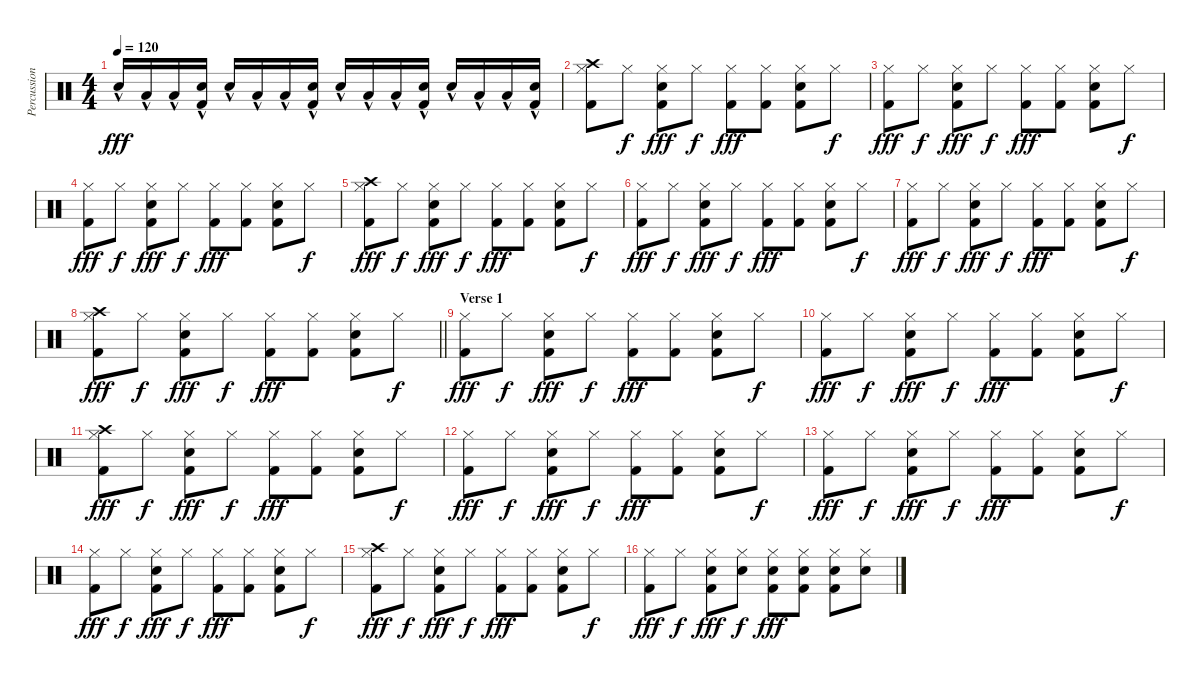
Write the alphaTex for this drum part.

\track ("Percussion: Steve Walchoz" "Percussion") {instrument percussion}
\staff {score}
\articulation defaults
\ts (4 4)
\tempo 120
\clef neutral
\ks c "Snare (hit) 2"{hac}.16{dy fff} "Low Tom (hit)"{hac}.16 "Low Tom (hit)"{hac}.16
("Snare (hit) 2" "Kick (hit) 2"{hac}).16 "Snare (hit) 2"{hac}.16 "Low Tom (hit)"{hac}.16 "Low Tom (hit)"{hac}.16 ("Snare (hit) 2" "Kick (hit) 2"{hac}).16 "Snare (hit) 2"{hac}.16 "Low Tom (hit)"{hac}.16 "Low Tom (hit)"{hac}.16 ("Snare (hit) 2" "Kick (hit) 2"{hac}).16 "Snare (hit) 2"{hac}.16 "Low Tom (hit)"{hac}.16 "Low Tom (hit)"{hac}.16 ("Snare (hit) 2" "Kick (hit) 2"{hac}).16 |
("Crash high (hit)" "Hi-Hat (closed)" "Kick (hit) 2").8 "Hi-Hat (closed)".8{dy f} ("Hi-Hat (closed)" "Snare (hit) 2" "Kick (hit) 2").8{dy fff} "Hi-Hat (closed)".8{dy f} ("Hi-Hat (closed)" "Kick (hit) 2").8{dy fff} ("Hi-Hat (closed)" "Kick (hit) 2").8 ("Hi-Hat (closed)" "Snare (hit) 2" "Kick (hit) 2").8 "Hi-Hat (closed)".8{dy f} |
("Hi-Hat (closed)" "Kick (hit) 2").8{dy fff} "Hi-Hat (closed)".8{dy f} ("Hi-Hat (closed)" "Snare (hit) 2" "Kick (hit) 2").8{dy fff} "Hi-Hat (closed)".8{dy f} ("Hi-Hat (closed)" "Kick (hit) 2").8{dy fff} ("Hi-Hat (closed)" "Kick (hit) 2").8 ("Hi-Hat (closed)" "Snare (hit) 2" "Kick (hit) 2").8 "Hi-Hat (closed)".8{dy f} |
("Hi-Hat (closed)" "Kick (hit) 2").8{dy fff} "Hi-Hat (closed)".8{dy f} ("Hi-Hat (closed)" "Snare (hit) 2" "Kick (hit) 2").8{dy fff} "Hi-Hat (closed)".8{dy f} ("Hi-Hat (closed)" "Kick (hit) 2").8{dy fff} ("Hi-Hat (closed)" "Kick (hit) 2").8 ("Hi-Hat (closed)" "Snare (hit) 2" "Kick (hit) 2").8 "Hi-Hat (closed)".8{dy f} |
("Crash high (hit)" "Hi-Hat (closed)" "Kick (hit) 2").8{dy fff} "Hi-Hat (closed)".8{dy f} ("Hi-Hat (closed)" "Snare (hit) 2" "Kick (hit) 2").8{dy fff} "Hi-Hat (closed)".8{dy f} ("Hi-Hat (closed)" "Kick (hit) 2").8{dy fff} ("Hi-Hat (closed)" "Kick (hit) 2").8 ("Hi-Hat (closed)" "Snare (hit) 2" "Kick (hit) 2").8 "Hi-Hat (closed)".8{dy f} |
("Hi-Hat (closed)" "Kick (hit) 2").8{dy fff} "Hi-Hat (closed)".8{dy f} ("Hi-Hat (closed)" "Snare (hit) 2" "Kick (hit) 2").8{dy fff} "Hi-Hat (closed)".8{dy f} ("Hi-Hat (closed)" "Kick (hit) 2").8{dy fff} ("Hi-Hat (closed)" "Kick (hit) 2").8 ("Hi-Hat (closed)" "Snare (hit) 2" "Kick (hit) 2").8 "Hi-Hat (closed)".8{dy f} |
("Hi-Hat (closed)" "Kick (hit) 2").8{dy fff} "Hi-Hat (closed)".8{dy f} ("Hi-Hat (closed)" "Snare (hit) 2" "Kick (hit) 2").8{dy fff} "Hi-Hat (closed)".8{dy f} ("Hi-Hat (closed)" "Kick (hit) 2").8{dy fff} ("Hi-Hat (closed)" "Kick (hit) 2").8 ("Hi-Hat (closed)" "Snare (hit) 2" "Kick (hit) 2").8 "Hi-Hat (closed)".8{dy f} |
\barLineRight lightlight
("Crash high (hit)" "Hi-Hat (closed)" "Kick (hit) 2").8{dy fff} "Hi-Hat (closed)".8{dy f} ("Hi-Hat (closed)" "Snare (hit) 2" "Kick (hit) 2").8{dy fff} "Hi-Hat (closed)".8{dy f} ("Hi-Hat (closed)" "Kick (hit) 2").8{dy fff} ("Hi-Hat (closed)" "Kick (hit) 2").8 ("Hi-Hat (closed)" "Snare (hit) 2" "Kick (hit) 2").8 "Hi-Hat (closed)".8{dy f} |
\section ("" "Verse 1")
("Hi-Hat (closed)" "Kick (hit) 2").8{dy fff} "Hi-Hat (closed)".8{dy f} ("Hi-Hat (closed)" "Snare (hit) 2" "Kick (hit) 2").8{dy fff} "Hi-Hat (closed)".8{dy f} ("Hi-Hat (closed)" "Kick (hit) 2").8{dy fff} ("Hi-Hat (closed)" "Kick (hit) 2").8 ("Hi-Hat (closed)" "Snare (hit) 2" "Kick (hit) 2").8 "Hi-Hat (closed)".8{dy f} |
("Hi-Hat (closed)" "Kick (hit) 2").8{dy fff} "Hi-Hat (closed)".8{dy f} ("Hi-Hat (closed)" "Snare (hit) 2" "Kick (hit) 2").8{dy fff} "Hi-Hat (closed)".8{dy f} ("Hi-Hat (closed)" "Kick (hit) 2").8{dy fff} ("Hi-Hat (closed)" "Kick (hit) 2").8 ("Hi-Hat (closed)" "Snare (hit) 2" "Kick (hit) 2").8 "Hi-Hat (closed)".8{dy f} |
("Crash high (hit)" "Hi-Hat (closed)" "Kick (hit) 2").8{dy fff} "Hi-Hat (closed)".8{dy f} ("Hi-Hat (closed)" "Snare (hit) 2" "Kick (hit) 2").8{dy fff} "Hi-Hat (closed)".8{dy f} ("Hi-Hat (closed)" "Kick (hit) 2").8{dy fff} ("Hi-Hat (closed)" "Kick (hit) 2").8 ("Hi-Hat (closed)" "Snare (hit) 2" "Kick (hit) 2").8 "Hi-Hat (closed)".8{dy f} |
("Hi-Hat (closed)" "Kick (hit) 2").8{dy fff} "Hi-Hat (closed)".8{dy f} ("Hi-Hat (closed)" "Snare (hit) 2" "Kick (hit) 2").8{dy fff} "Hi-Hat (closed)".8{dy f} ("Hi-Hat (closed)" "Kick (hit) 2").8{dy fff} ("Hi-Hat (closed)" "Kick (hit) 2").8 ("Hi-Hat (closed)" "Snare (hit) 2" "Kick (hit) 2").8 "Hi-Hat (closed)".8{dy f} |
("Hi-Hat (closed)" "Kick (hit) 2").8{dy fff} "Hi-Hat (closed)".8{dy f} ("Hi-Hat (closed)" "Snare (hit) 2" "Kick (hit) 2").8{dy fff} "Hi-Hat (closed)".8{dy f} ("Hi-Hat (closed)" "Kick (hit) 2").8{dy fff} ("Hi-Hat (closed)" "Kick (hit) 2").8 ("Hi-Hat (closed)" "Snare (hit) 2" "Kick (hit) 2").8 "Hi-Hat (closed)".8{dy f} |
("Hi-Hat (closed)" "Kick (hit) 2").8{dy fff} "Hi-Hat (closed)".8{dy f} ("Hi-Hat (closed)" "Snare (hit) 2" "Kick (hit) 2").8{dy fff} "Hi-Hat (closed)".8{dy f} ("Hi-Hat (closed)" "Kick (hit) 2").8{dy fff} ("Hi-Hat (closed)" "Kick (hit) 2").8 ("Hi-Hat (closed)" "Snare (hit) 2" "Kick (hit) 2").8 "Hi-Hat (closed)".8{dy f} |
("Crash high (hit)" "Hi-Hat (closed)" "Kick (hit) 2").8{dy fff} "Hi-Hat (closed)".8{dy f} ("Hi-Hat (closed)" "Snare (hit) 2" "Kick (hit) 2").8{dy fff} "Hi-Hat (closed)".8{dy f} ("Hi-Hat (closed)" "Kick (hit) 2").8{dy fff} ("Hi-Hat (closed)" "Kick (hit) 2").8 ("Hi-Hat (closed)" "Snare (hit) 2" "Kick (hit) 2").8 "Hi-Hat (closed)".8{dy f} |
("Hi-Hat (closed)" "Kick (hit) 2").8{dy fff} "Hi-Hat (closed)".8{dy f} ("Hi-Hat (closed)" "Snare (hit) 2" "Kick (hit) 2").8{dy fff} ("Hi-Hat (closed)" "Snare (hit) 2").8{dy f} ("Hi-Hat (closed)" "Snare (hit) 2" "Kick (hit) 2").8{dy fff} ("Hi-Hat (closed)" "Snare (hit) 2" "Kick (hit) 2").8 ("Hi-Hat (closed)" "Snare (hit) 2" "Kick (hit) 2").8 ("Hi-Hat (closed)" "Snare (hit) 2").8
